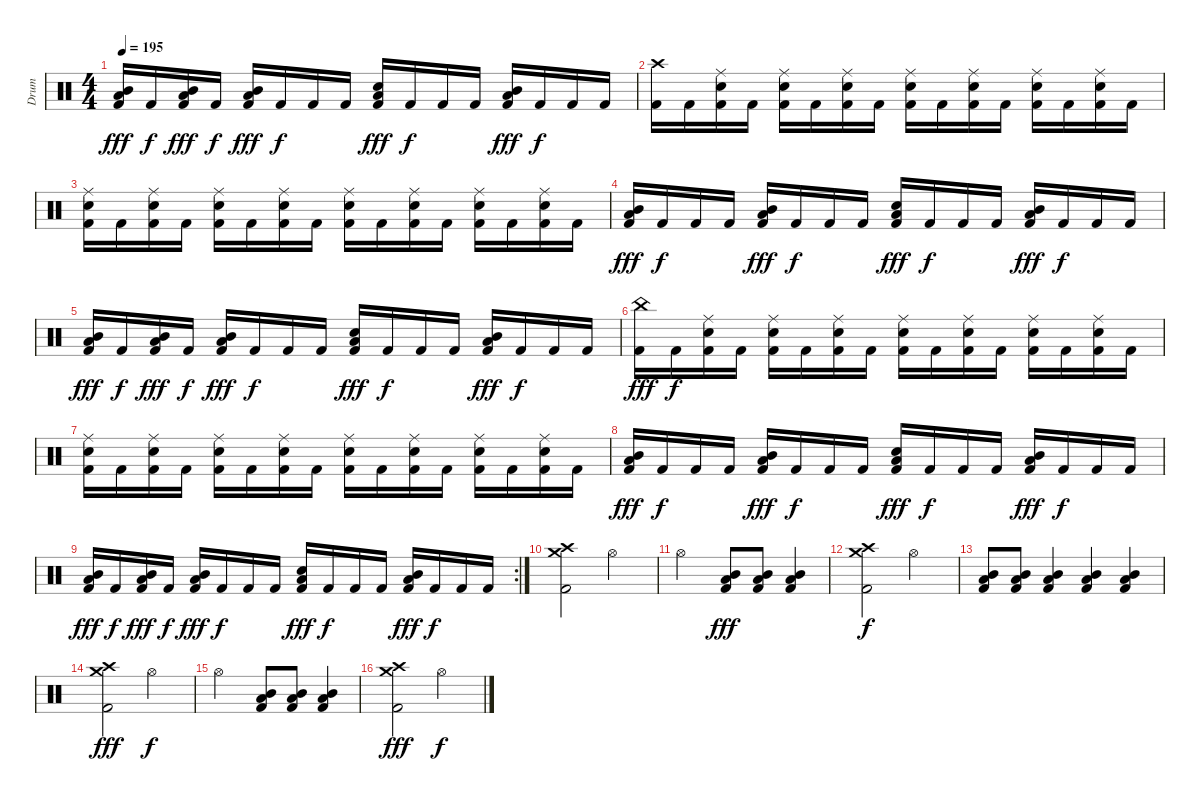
\track ("Drum" "Drum") {instrument percussion}
\staff {score}
\articulation defaults
\ts (4 4)
\tempo 195
\clef neutral
\ks c
("Mid Tom (hit)" "Low Tom (hit)" "Kick (hit) 2").16{dy fff} "Kick (hit) 2".16{dy f} ("Mid Tom (hit)" "Low Tom (hit)" "Kick (hit) 2").16{dy fff} "Kick (hit) 2".16{dy f} ("Mid Tom (hit)" "Low Tom (hit)" "Kick (hit) 2").16{dy fff} "Kick (hit) 2".16{dy f} "Kick (hit) 2".16 "Kick (hit) 2".16 ("Low Tom (hit)" "Electric Snare (hit)" "Kick (hit) 2").16{dy fff} "Kick (hit) 2".16{dy f} "Kick (hit) 2".16 "Kick (hit) 2".16 ("Mid Tom (hit)" "Low Tom (hit)" "Kick (hit) 2").16{dy fff} "Kick (hit) 2".16{dy f} "Kick (hit) 2".16 "Kick (hit) 2".16 |
("Crash high (hit)" "Kick (hit) 2").16 "Kick (hit) 2".16 ("Ride (middle)" "Electric Snare (hit)" "Kick (hit) 2").16 "Kick (hit) 2".16 ("Ride (middle)" "Electric Snare (hit)" "Kick (hit) 2").16 "Kick (hit) 2".16 ("Ride (middle)" "Electric Snare (hit)" "Kick (hit) 2").16 "Kick (hit) 2".16 ("Ride (middle)" "Electric Snare (hit)" "Kick (hit) 2").16 "Kick (hit) 2".16 ("Ride (middle)" "Electric Snare (hit)" "Kick (hit) 2").16 "Kick (hit) 2".16 ("Ride (middle)" "Electric Snare (hit)" "Kick (hit) 2").16 "Kick (hit) 2".16 ("Ride (middle)" "Electric Snare (hit)" "Kick (hit) 2").16 "Kick (hit) 2".16 |
("Ride (middle)" "Electric Snare (hit)" "Kick (hit) 2").16 "Kick (hit) 2".16 ("Ride (middle)" "Electric Snare (hit)" "Kick (hit) 2").16 "Kick (hit) 2".16 ("Ride (middle)" "Electric Snare (hit)" "Kick (hit) 2").16 "Kick (hit) 2".16 ("Ride (middle)" "Electric Snare (hit)" "Kick (hit) 2").16 "Kick (hit) 2".16 ("Ride (middle)" "Electric Snare (hit)" "Kick (hit) 2").16 "Kick (hit) 2".16 ("Ride (middle)" "Electric Snare (hit)" "Kick (hit) 2").16 "Kick (hit) 2".16 ("Ride (middle)" "Electric Snare (hit)" "Kick (hit) 2").16 "Kick (hit) 2".16 ("Ride (middle)" "Electric Snare (hit)" "Kick (hit) 2").16 "Kick (hit) 2".16 |
("Mid Tom (hit)" "Low Tom (hit)" "Kick (hit) 2").16{dy fff} "Kick (hit) 2".16{dy f} "Kick (hit) 2".16 "Kick (hit) 2".16 ("Mid Tom (hit)" "Low Tom (hit)" "Kick (hit) 2").16{dy fff} "Kick (hit) 2".16{dy f} "Kick (hit) 2".16 "Kick (hit) 2".16 ("Low Tom (hit)" "Electric Snare (hit)" "Kick (hit) 2").16{dy fff} "Kick (hit) 2".16{dy f} "Kick (hit) 2".16 "Kick (hit) 2".16 ("Mid Tom (hit)" "Low Tom (hit)" "Kick (hit) 2").16{dy fff} "Kick (hit) 2".16{dy f} "Kick (hit) 2".16 "Kick (hit) 2".16 |
("Mid Tom (hit)" "Low Tom (hit)" "Kick (hit) 2").16{dy fff} "Kick (hit) 2".16{dy f} ("Mid Tom (hit)" "Low Tom (hit)" "Kick (hit) 2").16{dy fff} "Kick (hit) 2".16{dy f} ("Mid Tom (hit)" "Low Tom (hit)" "Kick (hit) 2").16{dy fff} "Kick (hit) 2".16{dy f} "Kick (hit) 2".16 "Kick (hit) 2".16 ("Low Tom (hit)" "Electric Snare (hit)" "Kick (hit) 2").16{dy fff} "Kick (hit) 2".16{dy f} "Kick (hit) 2".16 "Kick (hit) 2".16 ("Mid Tom (hit)" "Low Tom (hit)" "Kick (hit) 2").16{dy fff} "Kick (hit) 2".16{dy f} "Kick (hit) 2".16 "Kick (hit) 2".16 |
("China (hit)" "Kick (hit) 2").16{dy fff} "Kick (hit) 2".16{dy f} ("Ride (middle)" "Electric Snare (hit)" "Kick (hit) 2").16 "Kick (hit) 2".16 ("Ride (middle)" "Electric Snare (hit)" "Kick (hit) 2").16 "Kick (hit) 2".16 ("Ride (middle)" "Electric Snare (hit)" "Kick (hit) 2").16 "Kick (hit) 2".16 ("Ride (middle)" "Electric Snare (hit)" "Kick (hit) 2").16 "Kick (hit) 2".16 ("Ride (middle)" "Electric Snare (hit)" "Kick (hit) 2").16 "Kick (hit) 2".16 ("Ride (middle)" "Electric Snare (hit)" "Kick (hit) 2").16 "Kick (hit) 2".16 ("Ride (middle)" "Electric Snare (hit)" "Kick (hit) 2").16 "Kick (hit) 2".16 |
("Ride (middle)" "Electric Snare (hit)" "Kick (hit) 2").16 "Kick (hit) 2".16 ("Ride (middle)" "Electric Snare (hit)" "Kick (hit) 2").16 "Kick (hit) 2".16 ("Ride (middle)" "Electric Snare (hit)" "Kick (hit) 2").16 "Kick (hit) 2".16 ("Ride (middle)" "Electric Snare (hit)" "Kick (hit) 2").16 "Kick (hit) 2".16 ("Ride (middle)" "Electric Snare (hit)" "Kick (hit) 2").16 "Kick (hit) 2".16 ("Ride (middle)" "Electric Snare (hit)" "Kick (hit) 2").16 "Kick (hit) 2".16 ("Ride (middle)" "Electric Snare (hit)" "Kick (hit) 2").16 "Kick (hit) 2".16 ("Ride (middle)" "Electric Snare (hit)" "Kick (hit) 2").16 "Kick (hit) 2".16 |
("Mid Tom (hit)" "Low Tom (hit)" "Kick (hit) 2").16{dy fff} "Kick (hit) 2".16{dy f} "Kick (hit) 2".16 "Kick (hit) 2".16 ("Mid Tom (hit)" "Low Tom (hit)" "Kick (hit) 2").16{dy fff} "Kick (hit) 2".16{dy f} "Kick (hit) 2".16 "Kick (hit) 2".16 ("Low Tom (hit)" "Electric Snare (hit)" "Kick (hit) 2").16{dy fff} "Kick (hit) 2".16{dy f} "Kick (hit) 2".16 "Kick (hit) 2".16 ("Mid Tom (hit)" "Low Tom (hit)" "Kick (hit) 2").16{dy fff} "Kick (hit) 2".16{dy f} "Kick (hit) 2".16 "Kick (hit) 2".16 |
\rc 2
("Mid Tom (hit)" "Low Tom (hit)" "Kick (hit) 2").16{dy fff} "Kick (hit) 2".16{dy f} ("Mid Tom (hit)" "Low Tom (hit)" "Kick (hit) 2").16{dy fff} "Kick (hit) 2".16{dy f} ("Mid Tom (hit)" "Low Tom (hit)" "Kick (hit) 2").16{dy fff} "Kick (hit) 2".16{dy f} "Kick (hit) 2".16 "Kick (hit) 2".16 ("Low Tom (hit)" "Electric Snare (hit)" "Kick (hit) 2").16{dy fff} "Kick (hit) 2".16{dy f} "Kick (hit) 2".16 "Kick (hit) 2".16 ("Mid Tom (hit)" "Low Tom (hit)" "Kick (hit) 2").16{dy fff} "Kick (hit) 2".16{dy f} "Kick (hit) 2".16 "Kick (hit) 2".16 |
("Crash high (hit)" "Crash medium (hit)" "Kick (hit) 2").2 "Hi-Hat (open)".2 |
"Hi-Hat (open)".2 ("Mid Tom (hit)" "Low Tom (hit)" "Kick (hit) 2").8{dy fff} ("Mid Tom (hit)" "Low Tom (hit)" "Kick (hit) 2").8 ("Mid Tom (hit)" "Low Tom (hit)" "Kick (hit) 2").4 |
("Crash high (hit)" "Crash medium (hit)" "Kick (hit) 2").2{dy f} "Hi-Hat (open)".2 |
("Low Tom (hit)" "Mid Tom (hit)" "Kick (hit) 2").8 ("Low Tom (hit)" "Mid Tom (hit)" "Kick (hit) 2").8 ("Low Tom (hit)" "Mid Tom (hit)" "Kick (hit) 2").4 ("Low Tom (hit)" "Mid Tom (hit)" "Kick (hit) 2").4 ("Low Tom (hit)" "Mid Tom (hit)" "Kick (hit) 2").4 |
("Crash high (hit)" "Crash medium (hit)" "Kick (hit) 2").2{dy fff} "Hi-Hat (open)".2{dy f} |
"Hi-Hat (open)".2 ("Mid Tom (hit)" "Low Tom (hit)" "Kick (hit) 2").8 ("Mid Tom (hit)" "Low Tom (hit)" "Kick (hit) 2").8 ("Mid Tom (hit)" "Low Tom (hit)" "Kick (hit) 2").4 |
("Crash high (hit)" "Crash medium (hit)" "Kick (hit) 2").2{dy fff} "Hi-Hat (open)".2{dy f}
